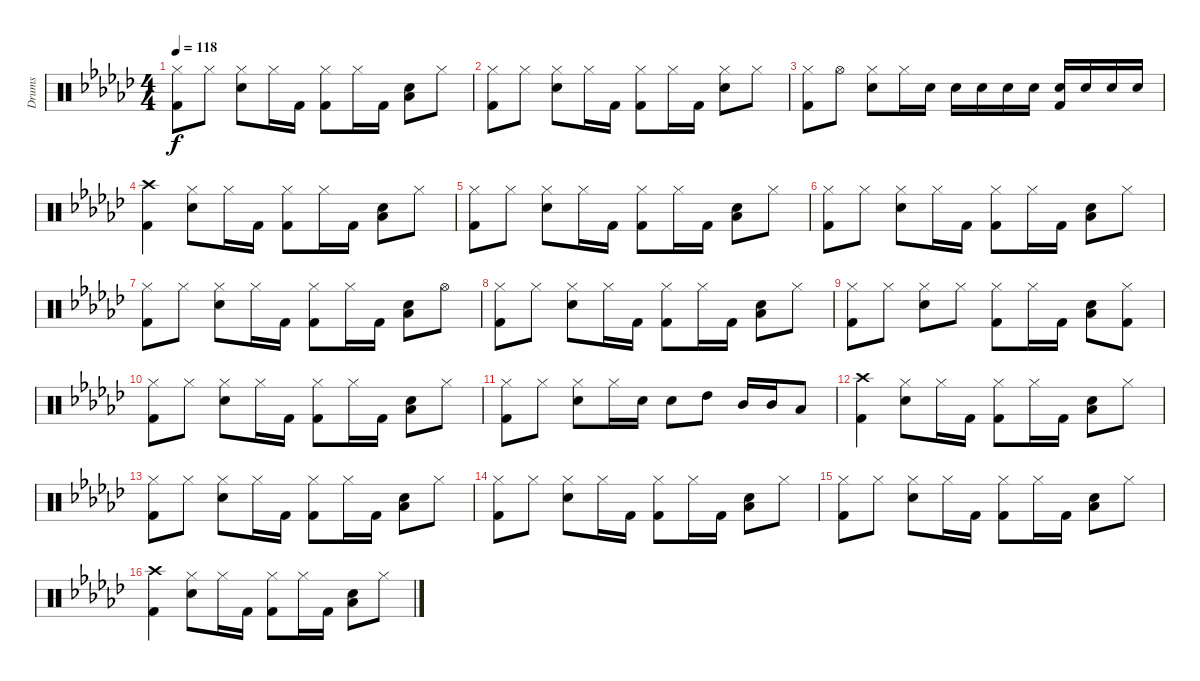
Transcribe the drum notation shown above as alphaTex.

\track ("Drums" "Drums") {instrument percussion}
\staff {score}
\articulation defaults
\ts (4 4)
\tempo 118
\clef neutral
\ks ebminor
("Hi-Hat (closed)" "Kick (hit) 2").8{dy f} "Hi-Hat (closed)".8 ("Hi-Hat (closed)" "Electric Snare (hit)").8 "Hi-Hat (closed)".16 "Kick (hit) 2".16 ("Hi-Hat (closed)" "Kick (hit) 2").8 "Hi-Hat (closed)".16 "Kick (hit) 2".16 ("Electric Snare (hit)" "Low Tom (hit)").8 "Hi-Hat (closed)".8 |
("Hi-Hat (closed)" "Kick (hit) 2").8 "Hi-Hat (closed)".8 ("Hi-Hat (closed)" "Electric Snare (hit)").8 "Hi-Hat (closed)".16 "Kick (hit) 2".16 ("Hi-Hat (closed)" "Kick (hit) 2").8 "Hi-Hat (closed)".16 "Kick (hit) 2".16 ("Hi-Hat (closed)" "Electric Snare (hit)").8 "Hi-Hat (closed)".8 |
("Hi-Hat (closed)" "Kick (hit) 2").8 "Hi-Hat (open)".8 ("Hi-Hat (closed)" "Electric Snare (hit)").8 "Hi-Hat (closed)".16 "Electric Snare (hit)".16 "Electric Snare (hit)".16 "Electric Snare (hit)".16 "Electric Snare (hit)".16 "Electric Snare (hit)".16 ("Electric Snare (hit)" "Kick (hit) 2").16 "Electric Snare (hit)".16 "Electric Snare (hit)".16 "Electric Snare (hit)".16 |
("Crash high (hit)" "Kick (hit) 2").4 ("Hi-Hat (closed)" "Electric Snare (hit)").8 "Hi-Hat (closed)".16 "Kick (hit) 2".16 ("Hi-Hat (closed)" "Kick (hit) 2").8 "Hi-Hat (closed)".16 "Kick (hit) 2".16 ("Electric Snare (hit)" "Low Tom (hit)").8 "Hi-Hat (closed)".8 |
("Hi-Hat (closed)" "Kick (hit) 2").8 "Hi-Hat (closed)".8 ("Hi-Hat (closed)" "Electric Snare (hit)").8 "Hi-Hat (closed)".16 "Kick (hit) 2".16 ("Hi-Hat (closed)" "Kick (hit) 2").8 "Hi-Hat (closed)".16 "Kick (hit) 2".16 ("Electric Snare (hit)" "Low Tom (hit)").8 "Hi-Hat (closed)".8 |
("Hi-Hat (closed)" "Kick (hit) 2").8 "Hi-Hat (closed)".8 ("Hi-Hat (closed)" "Electric Snare (hit)").8 "Hi-Hat (closed)".16 "Kick (hit) 2".16 ("Hi-Hat (closed)" "Kick (hit) 2").8 "Hi-Hat (closed)".16 "Kick (hit) 2".16 ("Electric Snare (hit)" "Low Tom (hit)").8 "Hi-Hat (closed)".8 |
("Hi-Hat (closed)" "Kick (hit) 2").8 "Hi-Hat (closed)".8 ("Hi-Hat (closed)" "Electric Snare (hit)").8 "Hi-Hat (closed)".16 "Kick (hit) 2".16 ("Hi-Hat (closed)" "Kick (hit) 2").8 "Hi-Hat (closed)".16 "Kick (hit) 2".16 ("Electric Snare (hit)" "Low Tom (hit)").8 "Hi-Hat (open)".8 |
("Hi-Hat (closed)" "Kick (hit) 2").8 "Hi-Hat (closed)".8 ("Hi-Hat (closed)" "Electric Snare (hit)").8 "Hi-Hat (closed)".16 "Kick (hit) 2".16 ("Hi-Hat (closed)" "Kick (hit) 2").8 "Hi-Hat (closed)".16 "Kick (hit) 2".16 ("Electric Snare (hit)" "Low Tom (hit)").8 "Hi-Hat (closed)".8 |
("Hi-Hat (closed)" "Kick (hit) 2").8 "Hi-Hat (closed)".8 ("Hi-Hat (closed)" "Electric Snare (hit)").8 "Hi-Hat (closed)".8 ("Hi-Hat (closed)" "Kick (hit) 2").8 "Hi-Hat (closed)".16 "Kick (hit) 2".16 ("Electric Snare (hit)" "Low Tom (hit)").8 ("Hi-Hat (closed)" "Kick (hit) 2").8 |
("Hi-Hat (closed)" "Kick (hit) 2").8 "Hi-Hat (closed)".8 ("Hi-Hat (closed)" "Electric Snare (hit)").8 "Hi-Hat (closed)".16 "Kick (hit) 2".16 ("Hi-Hat (closed)" "Kick (hit) 2").8 "Hi-Hat (closed)".16 "Kick (hit) 2".16 ("Electric Snare (hit)" "Low Tom (hit)").8 "Hi-Hat (closed)".8 |
("Hi-Hat (closed)" "Kick (hit) 2").8 "Hi-Hat (closed)".8 ("Hi-Hat (closed)" "Electric Snare (hit)").8 "Hi-Hat (closed)".16 "Electric Snare (hit)".16 "Electric Snare (hit)".8 "High Tom (hit)".8 "Mid Tom (hit)".16 "Mid Tom (hit)".16 "Low Tom (hit)".8 |
("Crash high (hit)" "Kick (hit) 2").4 ("Hi-Hat (closed)" "Electric Snare (hit)").8 "Hi-Hat (closed)".16 "Kick (hit) 2".16 ("Hi-Hat (closed)" "Kick (hit) 2").8 "Hi-Hat (closed)".16 "Kick (hit) 2".16 ("Electric Snare (hit)" "Low Tom (hit)").8 "Hi-Hat (closed)".8 |
("Hi-Hat (closed)" "Kick (hit) 2").8 "Hi-Hat (closed)".8 ("Hi-Hat (closed)" "Electric Snare (hit)").8 "Hi-Hat (closed)".16 "Kick (hit) 2".16 ("Hi-Hat (closed)" "Kick (hit) 2").8 "Hi-Hat (closed)".16 "Kick (hit) 2".16 ("Electric Snare (hit)" "Low Tom (hit)").8 "Hi-Hat (closed)".8 |
("Hi-Hat (closed)" "Kick (hit) 2").8 "Hi-Hat (closed)".8 ("Hi-Hat (closed)" "Electric Snare (hit)").8 "Hi-Hat (closed)".16 "Kick (hit) 2".16 ("Hi-Hat (closed)" "Kick (hit) 2").8 "Hi-Hat (closed)".16 "Kick (hit) 2".16 ("Electric Snare (hit)" "Low Tom (hit)").8 "Hi-Hat (closed)".8 |
("Hi-Hat (closed)" "Kick (hit) 2").8 "Hi-Hat (closed)".8 ("Hi-Hat (closed)" "Electric Snare (hit)").8 "Hi-Hat (closed)".16 "Kick (hit) 2".16 ("Hi-Hat (closed)" "Kick (hit) 2").8 "Hi-Hat (closed)".16 "Kick (hit) 2".16 ("Electric Snare (hit)" "Low Tom (hit)").8 "Hi-Hat (closed)".8 |
("Crash high (hit)" "Kick (hit) 2").4 ("Hi-Hat (closed)" "Electric Snare (hit)").8 "Hi-Hat (closed)".16 "Kick (hit) 2".16 ("Hi-Hat (closed)" "Kick (hit) 2").8 "Hi-Hat (closed)".16 "Kick (hit) 2".16 ("Electric Snare (hit)" "Low Tom (hit)").8 "Hi-Hat (closed)".8
